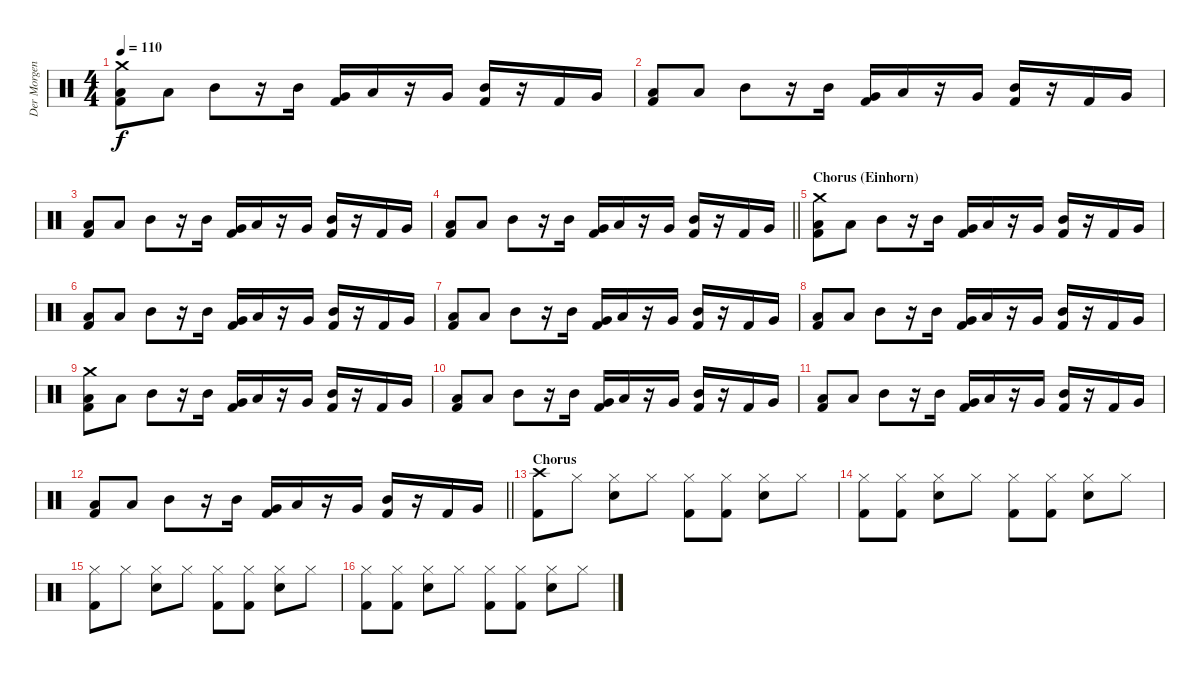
\track ("Der Morgenstern" "Der Morgen") {instrument percussion}
\staff {score}
\articulation defaults
\ts (4 4)
\tempo 110
\clef neutral
\ks c
("Low Floor Tom (hit)" "Kick (hit) 2" "Crash medium (hit)").8{dy f} "Low Floor Tom (hit)".8 "Mid Tom (hit)".8 r.16 "Mid Tom (hit)".16 ("Very Low Tom (hit)" "Kick (hit) 2").16 "Low Tom (hit)".16 r.16 "Very Low Tom (hit)".16 ("Mid Tom (hit)" "Kick (hit) 2").16 r.16 "Kick (hit) 2".16 "Very Low Tom (hit)".16 |
("Low Floor Tom (hit)" "Kick (hit) 2").8 "Low Floor Tom (hit)".8 "Mid Tom (hit)".8 r.16 "Mid Tom (hit)".16 ("Very Low Tom (hit)" "Kick (hit) 2").16 "Low Tom (hit)".16 r.16 "Very Low Tom (hit)".16 ("Mid Tom (hit)" "Kick (hit) 2").16 r.16 "Kick (hit) 2".16 "Very Low Tom (hit)".16 |
("Low Floor Tom (hit)" "Kick (hit) 2").8 "Low Floor Tom (hit)".8 "Mid Tom (hit)".8 r.16 "Mid Tom (hit)".16 ("Very Low Tom (hit)" "Kick (hit) 2").16 "Low Tom (hit)".16 r.16 "Very Low Tom (hit)".16 ("Mid Tom (hit)" "Kick (hit) 2").16 r.16 "Kick (hit) 2".16 "Very Low Tom (hit)".16 |
\barLineRight lightlight
("Low Floor Tom (hit)" "Kick (hit) 2").8 "Low Floor Tom (hit)".8 "Mid Tom (hit)".8 r.16 "Mid Tom (hit)".16 ("Very Low Tom (hit)" "Kick (hit) 2").16 "Low Tom (hit)".16 r.16 "Very Low Tom (hit)".16 ("Mid Tom (hit)" "Kick (hit) 2").16 r.16 "Kick (hit) 2".16 "Very Low Tom (hit)".16 |
\section ("" "Chorus (Einhorn)")
("Low Floor Tom (hit)" "Kick (hit) 2" "Crash medium (hit)").8 "Low Floor Tom (hit)".8 "Mid Tom (hit)".8 r.16 "Mid Tom (hit)".16 ("Very Low Tom (hit)" "Kick (hit) 2").16 "Low Tom (hit)".16 r.16 "Very Low Tom (hit)".16 ("Mid Tom (hit)" "Kick (hit) 2").16 r.16 "Kick (hit) 2".16 "Very Low Tom (hit)".16 |
("Low Floor Tom (hit)" "Kick (hit) 2").8 "Low Floor Tom (hit)".8 "Mid Tom (hit)".8 r.16 "Mid Tom (hit)".16 ("Very Low Tom (hit)" "Kick (hit) 2").16 "Low Tom (hit)".16 r.16 "Very Low Tom (hit)".16 ("Mid Tom (hit)" "Kick (hit) 2").16 r.16 "Kick (hit) 2".16 "Very Low Tom (hit)".16 |
("Low Floor Tom (hit)" "Kick (hit) 2").8 "Low Floor Tom (hit)".8 "Mid Tom (hit)".8 r.16 "Mid Tom (hit)".16 ("Very Low Tom (hit)" "Kick (hit) 2").16 "Low Tom (hit)".16 r.16 "Very Low Tom (hit)".16 ("Mid Tom (hit)" "Kick (hit) 2").16 r.16 "Kick (hit) 2".16 "Very Low Tom (hit)".16 |
("Low Floor Tom (hit)" "Kick (hit) 2").8 "Low Floor Tom (hit)".8 "Mid Tom (hit)".8 r.16 "Mid Tom (hit)".16 ("Very Low Tom (hit)" "Kick (hit) 2").16 "Low Tom (hit)".16 r.16 "Very Low Tom (hit)".16 ("Mid Tom (hit)" "Kick (hit) 2").16 r.16 "Kick (hit) 2".16 "Very Low Tom (hit)".16 |
("Low Floor Tom (hit)" "Kick (hit) 2" "Crash medium (hit)").8 "Low Floor Tom (hit)".8 "Mid Tom (hit)".8 r.16 "Mid Tom (hit)".16 ("Very Low Tom (hit)" "Kick (hit) 2").16 "Low Tom (hit)".16 r.16 "Very Low Tom (hit)".16 ("Mid Tom (hit)" "Kick (hit) 2").16 r.16 "Kick (hit) 2".16 "Very Low Tom (hit)".16 |
("Low Floor Tom (hit)" "Kick (hit) 2").8 "Low Floor Tom (hit)".8 "Mid Tom (hit)".8 r.16 "Mid Tom (hit)".16 ("Very Low Tom (hit)" "Kick (hit) 2").16 "Low Tom (hit)".16 r.16 "Very Low Tom (hit)".16 ("Mid Tom (hit)" "Kick (hit) 2").16 r.16 "Kick (hit) 2".16 "Very Low Tom (hit)".16 |
("Low Floor Tom (hit)" "Kick (hit) 2").8 "Low Floor Tom (hit)".8 "Mid Tom (hit)".8 r.16 "Mid Tom (hit)".16 ("Very Low Tom (hit)" "Kick (hit) 2").16 "Low Tom (hit)".16 r.16 "Very Low Tom (hit)".16 ("Mid Tom (hit)" "Kick (hit) 2").16 r.16 "Kick (hit) 2".16 "Very Low Tom (hit)".16 |
\barLineRight lightlight
("Low Floor Tom (hit)" "Kick (hit) 2").8 "Low Floor Tom (hit)".8 "Mid Tom (hit)".8 r.16 "Mid Tom (hit)".16 ("Very Low Tom (hit)" "Kick (hit) 2").16 "Low Tom (hit)".16 r.16 "Very Low Tom (hit)".16 ("Mid Tom (hit)" "Kick (hit) 2").16 r.16 "Kick (hit) 2".16 "Very Low Tom (hit)".16 |
\section ("" "Chorus")
("Crash high (hit)" "Kick (hit) 2").8 "Hi-Hat (closed)".8 ("Hi-Hat (closed)" "Snare (hit) 2").8 "Hi-Hat (closed)".8 ("Hi-Hat (closed)" "Kick (hit) 2").8 ("Hi-Hat (closed)" "Kick (hit) 2").8 ("Hi-Hat (closed)" "Snare (hit) 2").8 "Hi-Hat (closed)".8 |
("Hi-Hat (closed)" "Kick (hit) 2").8 ("Hi-Hat (closed)" "Kick (hit) 2").8 ("Hi-Hat (closed)" "Snare (hit) 2").8 "Hi-Hat (closed)".8 ("Hi-Hat (closed)" "Kick (hit) 2").8 ("Hi-Hat (closed)" "Kick (hit) 2").8 ("Hi-Hat (closed)" "Snare (hit) 2").8 "Hi-Hat (closed)".8 |
("Hi-Hat (closed)" "Kick (hit) 2").8 "Hi-Hat (closed)".8 ("Hi-Hat (closed)" "Snare (hit) 2").8 "Hi-Hat (closed)".8 ("Hi-Hat (closed)" "Kick (hit) 2").8 ("Hi-Hat (closed)" "Kick (hit) 2").8 ("Hi-Hat (closed)" "Snare (hit) 2").8 "Hi-Hat (closed)".8 |
("Hi-Hat (closed)" "Kick (hit) 2").8 ("Hi-Hat (closed)" "Kick (hit) 2").8 ("Hi-Hat (closed)" "Snare (hit) 2").8 "Hi-Hat (closed)".8 ("Hi-Hat (closed)" "Kick (hit) 2").8 ("Hi-Hat (closed)" "Kick (hit) 2").8 ("Hi-Hat (closed)" "Snare (hit) 2").8 "Hi-Hat (closed)".8
